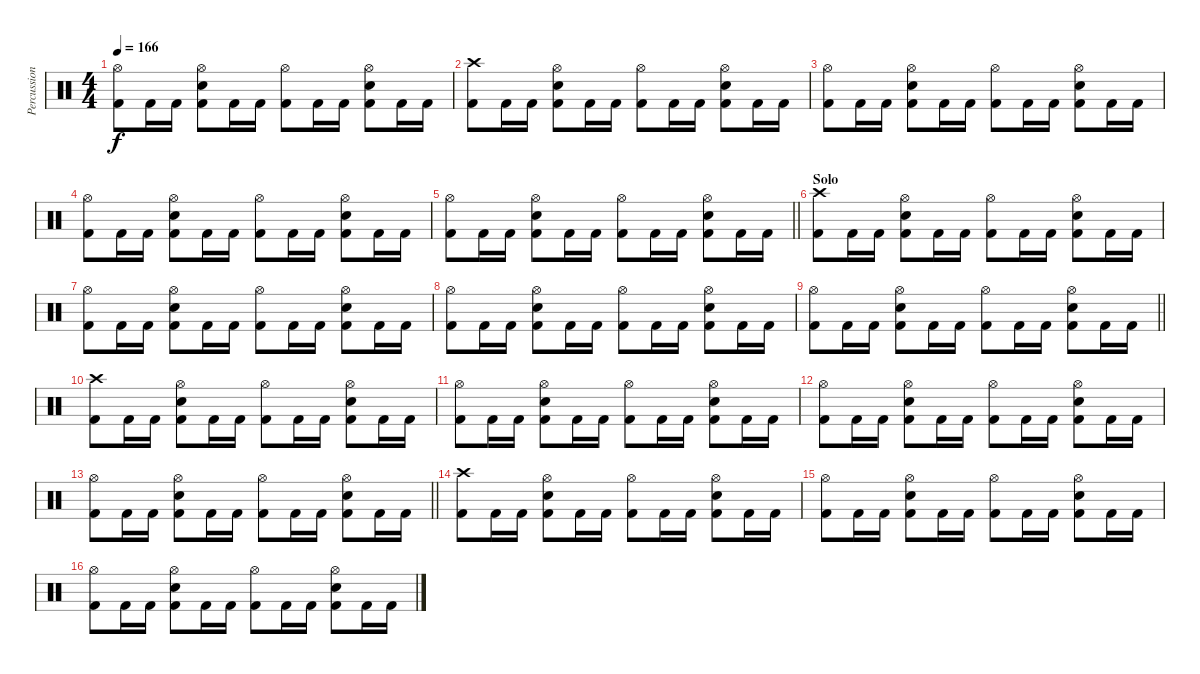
\track ("Percussion" "Percussion") {instrument percussion}
\staff {score}
\articulation defaults
\ts (4 4)
\tempo 166
\clef neutral
\ks c
("Hi-Hat (open)" "Kick (hit) 2").8{dy f} "Kick (hit) 2".16 "Kick (hit) 2".16 ("Hi-Hat (open)" "Snare (hit) 2" "Kick (hit) 2").8 "Kick (hit) 2".16 "Kick (hit) 2".16 ("Hi-Hat (open)" "Kick (hit) 2").8 "Kick (hit) 2".16 "Kick (hit) 2".16 ("Hi-Hat (open)" "Snare (hit) 2" "Kick (hit) 2").8 "Kick (hit) 2".16 "Kick (hit) 2".16 |
("Crash high (hit)" "Kick (hit) 2").8 "Kick (hit) 2".16 "Kick (hit) 2".16 ("Hi-Hat (open)" "Snare (hit) 2" "Kick (hit) 2").8 "Kick (hit) 2".16 "Kick (hit) 2".16 ("Hi-Hat (open)" "Kick (hit) 2").8 "Kick (hit) 2".16 "Kick (hit) 2".16 ("Hi-Hat (open)" "Snare (hit) 2" "Kick (hit) 2").8 "Kick (hit) 2".16 "Kick (hit) 2".16 |
("Hi-Hat (open)" "Kick (hit) 2").8 "Kick (hit) 2".16 "Kick (hit) 2".16 ("Hi-Hat (open)" "Snare (hit) 2" "Kick (hit) 2").8 "Kick (hit) 2".16 "Kick (hit) 2".16 ("Hi-Hat (open)" "Kick (hit) 2").8 "Kick (hit) 2".16 "Kick (hit) 2".16 ("Hi-Hat (open)" "Snare (hit) 2" "Kick (hit) 2").8 "Kick (hit) 2".16 "Kick (hit) 2".16 |
("Hi-Hat (open)" "Kick (hit) 2").8 "Kick (hit) 2".16 "Kick (hit) 2".16 ("Hi-Hat (open)" "Snare (hit) 2" "Kick (hit) 2").8 "Kick (hit) 2".16 "Kick (hit) 2".16 ("Hi-Hat (open)" "Kick (hit) 2").8 "Kick (hit) 2".16 "Kick (hit) 2".16 ("Hi-Hat (open)" "Snare (hit) 2" "Kick (hit) 2").8 "Kick (hit) 2".16 "Kick (hit) 2".16 |
\barLineRight lightlight
("Hi-Hat (open)" "Kick (hit) 2").8 "Kick (hit) 2".16 "Kick (hit) 2".16 ("Hi-Hat (open)" "Snare (hit) 2" "Kick (hit) 2").8 "Kick (hit) 2".16 "Kick (hit) 2".16 ("Hi-Hat (open)" "Kick (hit) 2").8 "Kick (hit) 2".16 "Kick (hit) 2".16 ("Hi-Hat (open)" "Snare (hit) 2" "Kick (hit) 2").8 "Kick (hit) 2".16 "Kick (hit) 2".16 |
\section ("" "Solo")
("Crash high (hit)" "Kick (hit) 2").8 "Kick (hit) 2".16 "Kick (hit) 2".16 ("Hi-Hat (open)" "Snare (hit) 2" "Kick (hit) 2").8 "Kick (hit) 2".16 "Kick (hit) 2".16 ("Hi-Hat (open)" "Kick (hit) 2").8 "Kick (hit) 2".16 "Kick (hit) 2".16 ("Hi-Hat (open)" "Snare (hit) 2" "Kick (hit) 2").8 "Kick (hit) 2".16 "Kick (hit) 2".16 |
("Hi-Hat (open)" "Kick (hit) 2").8 "Kick (hit) 2".16 "Kick (hit) 2".16 ("Hi-Hat (open)" "Snare (hit) 2" "Kick (hit) 2").8 "Kick (hit) 2".16 "Kick (hit) 2".16 ("Hi-Hat (open)" "Kick (hit) 2").8 "Kick (hit) 2".16 "Kick (hit) 2".16 ("Hi-Hat (open)" "Snare (hit) 2" "Kick (hit) 2").8 "Kick (hit) 2".16 "Kick (hit) 2".16 |
("Hi-Hat (open)" "Kick (hit) 2").8 "Kick (hit) 2".16 "Kick (hit) 2".16 ("Hi-Hat (open)" "Snare (hit) 2" "Kick (hit) 2").8 "Kick (hit) 2".16 "Kick (hit) 2".16 ("Hi-Hat (open)" "Kick (hit) 2").8 "Kick (hit) 2".16 "Kick (hit) 2".16 ("Hi-Hat (open)" "Snare (hit) 2" "Kick (hit) 2").8 "Kick (hit) 2".16 "Kick (hit) 2".16 |
\barLineRight lightlight
("Hi-Hat (open)" "Kick (hit) 2").8 "Kick (hit) 2".16 "Kick (hit) 2".16 ("Hi-Hat (open)" "Snare (hit) 2" "Kick (hit) 2").8 "Kick (hit) 2".16 "Kick (hit) 2".16 ("Hi-Hat (open)" "Kick (hit) 2").8 "Kick (hit) 2".16 "Kick (hit) 2".16 ("Hi-Hat (open)" "Snare (hit) 2" "Kick (hit) 2").8 "Kick (hit) 2".16 "Kick (hit) 2".16 |
("Crash high (hit)" "Kick (hit) 2").8 "Kick (hit) 2".16 "Kick (hit) 2".16 ("Hi-Hat (open)" "Snare (hit) 2" "Kick (hit) 2").8 "Kick (hit) 2".16 "Kick (hit) 2".16 ("Hi-Hat (open)" "Kick (hit) 2").8 "Kick (hit) 2".16 "Kick (hit) 2".16 ("Hi-Hat (open)" "Snare (hit) 2" "Kick (hit) 2").8 "Kick (hit) 2".16 "Kick (hit) 2".16 |
("Hi-Hat (open)" "Kick (hit) 2").8 "Kick (hit) 2".16 "Kick (hit) 2".16 ("Hi-Hat (open)" "Snare (hit) 2" "Kick (hit) 2").8 "Kick (hit) 2".16 "Kick (hit) 2".16 ("Hi-Hat (open)" "Kick (hit) 2").8 "Kick (hit) 2".16 "Kick (hit) 2".16 ("Hi-Hat (open)" "Snare (hit) 2" "Kick (hit) 2").8 "Kick (hit) 2".16 "Kick (hit) 2".16 |
("Hi-Hat (open)" "Kick (hit) 2").8 "Kick (hit) 2".16 "Kick (hit) 2".16 ("Hi-Hat (open)" "Snare (hit) 2" "Kick (hit) 2").8 "Kick (hit) 2".16 "Kick (hit) 2".16 ("Hi-Hat (open)" "Kick (hit) 2").8 "Kick (hit) 2".16 "Kick (hit) 2".16 ("Hi-Hat (open)" "Snare (hit) 2" "Kick (hit) 2").8 "Kick (hit) 2".16 "Kick (hit) 2".16 |
\barLineRight lightlight
("Hi-Hat (open)" "Kick (hit) 2").8 "Kick (hit) 2".16 "Kick (hit) 2".16 ("Hi-Hat (open)" "Snare (hit) 2" "Kick (hit) 2").8 "Kick (hit) 2".16 "Kick (hit) 2".16 ("Hi-Hat (open)" "Kick (hit) 2").8 "Kick (hit) 2".16 "Kick (hit) 2".16 ("Hi-Hat (open)" "Snare (hit) 2" "Kick (hit) 2").8 "Kick (hit) 2".16 "Kick (hit) 2".16 |
("Crash high (hit)" "Kick (hit) 2").8 "Kick (hit) 2".16 "Kick (hit) 2".16 ("Hi-Hat (open)" "Snare (hit) 2" "Kick (hit) 2").8 "Kick (hit) 2".16 "Kick (hit) 2".16 ("Hi-Hat (open)" "Kick (hit) 2").8 "Kick (hit) 2".16 "Kick (hit) 2".16 ("Hi-Hat (open)" "Snare (hit) 2" "Kick (hit) 2").8 "Kick (hit) 2".16 "Kick (hit) 2".16 |
("Hi-Hat (open)" "Kick (hit) 2").8 "Kick (hit) 2".16 "Kick (hit) 2".16 ("Hi-Hat (open)" "Snare (hit) 2" "Kick (hit) 2").8 "Kick (hit) 2".16 "Kick (hit) 2".16 ("Hi-Hat (open)" "Kick (hit) 2").8 "Kick (hit) 2".16 "Kick (hit) 2".16 ("Hi-Hat (open)" "Snare (hit) 2" "Kick (hit) 2").8 "Kick (hit) 2".16 "Kick (hit) 2".16 |
("Hi-Hat (open)" "Kick (hit) 2").8 "Kick (hit) 2".16 "Kick (hit) 2".16 ("Hi-Hat (open)" "Snare (hit) 2" "Kick (hit) 2").8 "Kick (hit) 2".16 "Kick (hit) 2".16 ("Hi-Hat (open)" "Kick (hit) 2").8 "Kick (hit) 2".16 "Kick (hit) 2".16 ("Hi-Hat (open)" "Snare (hit) 2" "Kick (hit) 2").8 "Kick (hit) 2".16 "Kick (hit) 2".16
